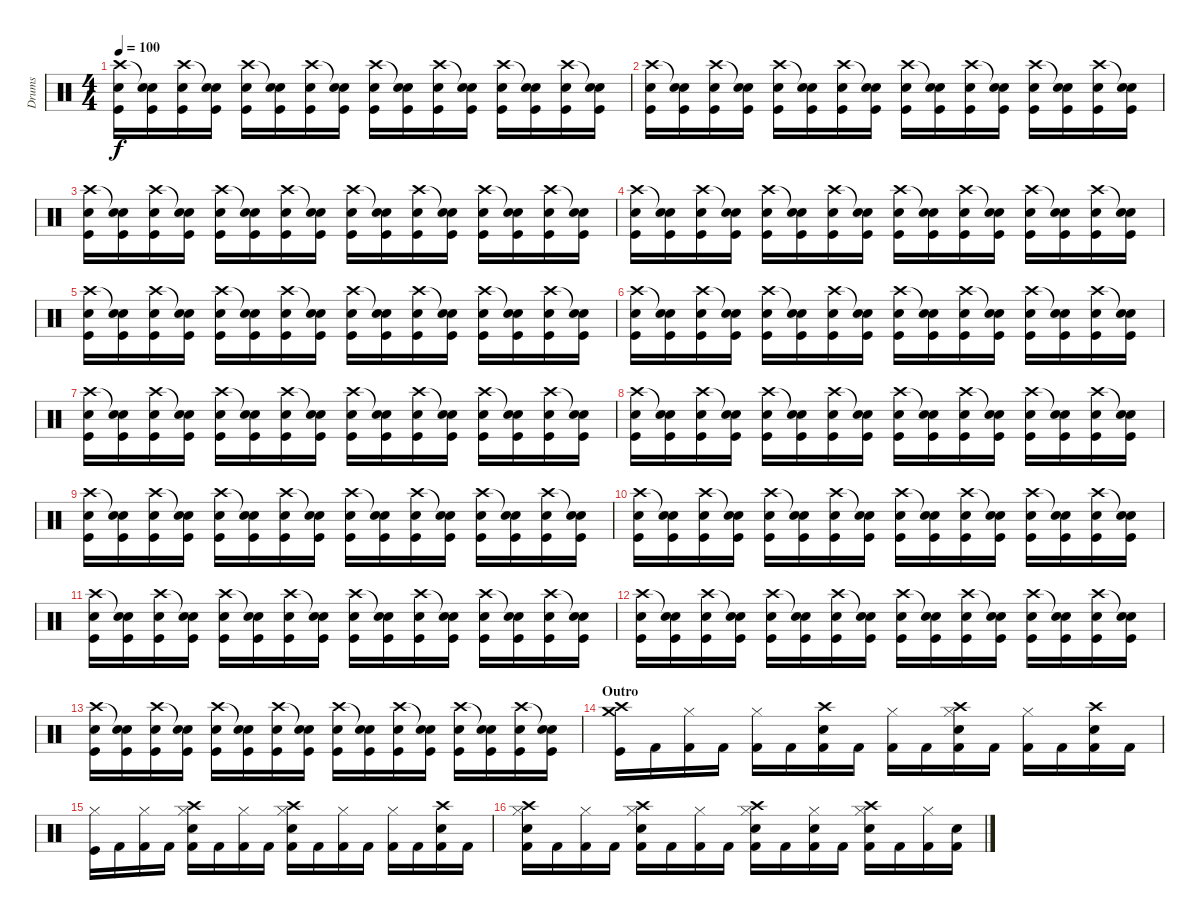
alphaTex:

\track ("Drums" "Drums") {instrument percussion}
\staff {score}
\articulation defaults
\ts (4 4)
\tempo 100
\clef neutral
\ks c
("Crash high (hit)" "Electric Snare (hit)" "Kick (hit)").16{dy f} ("Snare (hit)"{t} "Electric Snare (hit)" "Kick (hit)").16 ("Crash high (hit)" "Electric Snare (hit)" "Kick (hit)").16 ("Snare (hit)"{t} "Electric Snare (hit)" "Kick (hit)").16 ("Crash high (hit)" "Electric Snare (hit)" "Kick (hit)").16 ("Snare (hit)"{t} "Electric Snare (hit)" "Kick (hit)").16 ("Crash high (hit)" "Electric Snare (hit)" "Kick (hit)").16 ("Snare (hit)"{t} "Electric Snare (hit)" "Kick (hit)").16 ("Crash high (hit)" "Electric Snare (hit)" "Kick (hit)").16 ("Snare (hit)"{t} "Electric Snare (hit)" "Kick (hit)").16 ("Crash high (hit)" "Electric Snare (hit)" "Kick (hit)").16 ("Snare (hit)"{t} "Electric Snare (hit)" "Kick (hit)").16 ("Crash high (hit)" "Electric Snare (hit)" "Kick (hit)").16 ("Snare (hit)"{t} "Electric Snare (hit)" "Kick (hit)").16 ("Crash high (hit)" "Electric Snare (hit)" "Kick (hit)").16 ("Snare (hit)"{t} "Electric Snare (hit)" "Kick (hit)").16 |
("Crash high (hit)" "Electric Snare (hit)" "Kick (hit)").16 ("Snare (hit)"{t} "Electric Snare (hit)" "Kick (hit)").16 ("Crash high (hit)" "Electric Snare (hit)" "Kick (hit)").16 ("Snare (hit)"{t} "Electric Snare (hit)" "Kick (hit)").16 ("Crash high (hit)" "Electric Snare (hit)" "Kick (hit)").16 ("Snare (hit)"{t} "Electric Snare (hit)" "Kick (hit)").16 ("Crash high (hit)" "Electric Snare (hit)" "Kick (hit)").16 ("Snare (hit)"{t} "Electric Snare (hit)" "Kick (hit)").16 ("Crash high (hit)" "Electric Snare (hit)" "Kick (hit)").16 ("Snare (hit)"{t} "Electric Snare (hit)" "Kick (hit)").16 ("Crash high (hit)" "Electric Snare (hit)" "Kick (hit)").16 ("Snare (hit)"{t} "Electric Snare (hit)" "Kick (hit)").16 ("Crash high (hit)" "Electric Snare (hit)" "Kick (hit)").16 ("Snare (hit)"{t} "Electric Snare (hit)" "Kick (hit)").16 ("Crash high (hit)" "Electric Snare (hit)" "Kick (hit)").16 ("Snare (hit)"{t} "Electric Snare (hit)" "Kick (hit)").16 |
("Crash high (hit)" "Electric Snare (hit)" "Kick (hit)").16 ("Snare (hit)"{t} "Electric Snare (hit)" "Kick (hit)").16 ("Crash high (hit)" "Electric Snare (hit)" "Kick (hit)").16 ("Snare (hit)"{t} "Electric Snare (hit)" "Kick (hit)").16 ("Crash high (hit)" "Electric Snare (hit)" "Kick (hit)").16 ("Snare (hit)"{t} "Electric Snare (hit)" "Kick (hit)").16 ("Crash high (hit)" "Electric Snare (hit)" "Kick (hit)").16 ("Snare (hit)"{t} "Electric Snare (hit)" "Kick (hit)").16 ("Crash high (hit)" "Electric Snare (hit)" "Kick (hit)").16 ("Snare (hit)"{t} "Electric Snare (hit)" "Kick (hit)").16 ("Crash high (hit)" "Electric Snare (hit)" "Kick (hit)").16 ("Snare (hit)"{t} "Electric Snare (hit)" "Kick (hit)").16 ("Crash high (hit)" "Electric Snare (hit)" "Kick (hit)").16 ("Snare (hit)"{t} "Electric Snare (hit)" "Kick (hit)").16 ("Crash high (hit)" "Electric Snare (hit)" "Kick (hit)").16 ("Snare (hit)"{t} "Electric Snare (hit)" "Kick (hit)").16 |
("Crash high (hit)" "Electric Snare (hit)" "Kick (hit)").16 ("Snare (hit)"{t} "Electric Snare (hit)" "Kick (hit)").16 ("Crash high (hit)" "Electric Snare (hit)" "Kick (hit)").16 ("Snare (hit)"{t} "Electric Snare (hit)" "Kick (hit)").16 ("Crash high (hit)" "Electric Snare (hit)" "Kick (hit)").16 ("Snare (hit)"{t} "Electric Snare (hit)" "Kick (hit)").16 ("Crash high (hit)" "Electric Snare (hit)" "Kick (hit)").16 ("Snare (hit)"{t} "Electric Snare (hit)" "Kick (hit)").16 ("Crash high (hit)" "Electric Snare (hit)" "Kick (hit)").16 ("Snare (hit)"{t} "Electric Snare (hit)" "Kick (hit)").16 ("Crash high (hit)" "Electric Snare (hit)" "Kick (hit)").16 ("Snare (hit)"{t} "Electric Snare (hit)" "Kick (hit)").16 ("Crash high (hit)" "Electric Snare (hit)" "Kick (hit)").16 ("Snare (hit)"{t} "Electric Snare (hit)" "Kick (hit)").16 ("Crash high (hit)" "Electric Snare (hit)" "Kick (hit)").16 ("Snare (hit)"{t} "Electric Snare (hit)" "Kick (hit)").16 |
("Crash high (hit)" "Electric Snare (hit)" "Kick (hit)").16 ("Snare (hit)"{t} "Electric Snare (hit)" "Kick (hit)").16 ("Crash high (hit)" "Electric Snare (hit)" "Kick (hit)").16 ("Snare (hit)"{t} "Electric Snare (hit)" "Kick (hit)").16 ("Crash high (hit)" "Electric Snare (hit)" "Kick (hit)").16 ("Snare (hit)"{t} "Electric Snare (hit)" "Kick (hit)").16 ("Crash high (hit)" "Electric Snare (hit)" "Kick (hit)").16 ("Snare (hit)"{t} "Electric Snare (hit)" "Kick (hit)").16 ("Crash high (hit)" "Electric Snare (hit)" "Kick (hit)").16 ("Snare (hit)"{t} "Electric Snare (hit)" "Kick (hit)").16 ("Crash high (hit)" "Electric Snare (hit)" "Kick (hit)").16 ("Snare (hit)"{t} "Electric Snare (hit)" "Kick (hit)").16 ("Crash high (hit)" "Electric Snare (hit)" "Kick (hit)").16 ("Snare (hit)"{t} "Electric Snare (hit)" "Kick (hit)").16 ("Crash high (hit)" "Electric Snare (hit)" "Kick (hit)").16 ("Snare (hit)"{t} "Electric Snare (hit)" "Kick (hit)").16 |
("Crash high (hit)" "Electric Snare (hit)" "Kick (hit)").16 ("Snare (hit)"{t} "Electric Snare (hit)" "Kick (hit)").16 ("Crash high (hit)" "Electric Snare (hit)" "Kick (hit)").16 ("Snare (hit)"{t} "Electric Snare (hit)" "Kick (hit)").16 ("Crash high (hit)" "Electric Snare (hit)" "Kick (hit)").16 ("Snare (hit)"{t} "Electric Snare (hit)" "Kick (hit)").16 ("Crash high (hit)" "Electric Snare (hit)" "Kick (hit)").16 ("Snare (hit)"{t} "Electric Snare (hit)" "Kick (hit)").16 ("Crash high (hit)" "Electric Snare (hit)" "Kick (hit)").16 ("Snare (hit)"{t} "Electric Snare (hit)" "Kick (hit)").16 ("Crash high (hit)" "Electric Snare (hit)" "Kick (hit)").16 ("Snare (hit)"{t} "Electric Snare (hit)" "Kick (hit)").16 ("Crash high (hit)" "Electric Snare (hit)" "Kick (hit)").16 ("Snare (hit)"{t} "Electric Snare (hit)" "Kick (hit)").16 ("Crash high (hit)" "Electric Snare (hit)" "Kick (hit)").16 ("Snare (hit)"{t} "Electric Snare (hit)" "Kick (hit)").16 |
("Crash high (hit)" "Electric Snare (hit)" "Kick (hit)").16 ("Snare (hit)"{t} "Electric Snare (hit)" "Kick (hit)").16 ("Crash high (hit)" "Electric Snare (hit)" "Kick (hit)").16 ("Snare (hit)"{t} "Electric Snare (hit)" "Kick (hit)").16 ("Crash high (hit)" "Electric Snare (hit)" "Kick (hit)").16 ("Snare (hit)"{t} "Electric Snare (hit)" "Kick (hit)").16 ("Crash high (hit)" "Electric Snare (hit)" "Kick (hit)").16 ("Snare (hit)"{t} "Electric Snare (hit)" "Kick (hit)").16 ("Crash high (hit)" "Electric Snare (hit)" "Kick (hit)").16 ("Snare (hit)"{t} "Electric Snare (hit)" "Kick (hit)").16 ("Crash high (hit)" "Electric Snare (hit)" "Kick (hit)").16 ("Snare (hit)"{t} "Electric Snare (hit)" "Kick (hit)").16 ("Crash high (hit)" "Electric Snare (hit)" "Kick (hit)").16 ("Snare (hit)"{t} "Electric Snare (hit)" "Kick (hit)").16 ("Crash high (hit)" "Electric Snare (hit)" "Kick (hit)").16 ("Snare (hit)"{t} "Electric Snare (hit)" "Kick (hit)").16 |
("Crash high (hit)" "Electric Snare (hit)" "Kick (hit)").16 ("Snare (hit)"{t} "Electric Snare (hit)" "Kick (hit)").16 ("Crash high (hit)" "Electric Snare (hit)" "Kick (hit)").16 ("Snare (hit)"{t} "Electric Snare (hit)" "Kick (hit)").16 ("Crash high (hit)" "Electric Snare (hit)" "Kick (hit)").16 ("Snare (hit)"{t} "Electric Snare (hit)" "Kick (hit)").16 ("Crash high (hit)" "Electric Snare (hit)" "Kick (hit)").16 ("Snare (hit)"{t} "Electric Snare (hit)" "Kick (hit)").16 ("Crash high (hit)" "Electric Snare (hit)" "Kick (hit)").16 ("Snare (hit)"{t} "Electric Snare (hit)" "Kick (hit)").16 ("Crash high (hit)" "Electric Snare (hit)" "Kick (hit)").16 ("Snare (hit)"{t} "Electric Snare (hit)" "Kick (hit)").16 ("Crash high (hit)" "Electric Snare (hit)" "Kick (hit)").16 ("Snare (hit)"{t} "Electric Snare (hit)" "Kick (hit)").16 ("Crash high (hit)" "Electric Snare (hit)" "Kick (hit)").16 ("Snare (hit)"{t} "Electric Snare (hit)" "Kick (hit)").16 |
("Crash high (hit)" "Electric Snare (hit)" "Kick (hit)").16 ("Snare (hit)"{t} "Electric Snare (hit)" "Kick (hit)").16 ("Crash high (hit)" "Electric Snare (hit)" "Kick (hit)").16 ("Snare (hit)"{t} "Electric Snare (hit)" "Kick (hit)").16 ("Crash high (hit)" "Electric Snare (hit)" "Kick (hit)").16 ("Snare (hit)"{t} "Electric Snare (hit)" "Kick (hit)").16 ("Crash high (hit)" "Electric Snare (hit)" "Kick (hit)").16 ("Snare (hit)"{t} "Electric Snare (hit)" "Kick (hit)").16 ("Crash high (hit)" "Electric Snare (hit)" "Kick (hit)").16 ("Snare (hit)"{t} "Electric Snare (hit)" "Kick (hit)").16 ("Crash high (hit)" "Electric Snare (hit)" "Kick (hit)").16 ("Snare (hit)"{t} "Electric Snare (hit)" "Kick (hit)").16 ("Crash high (hit)" "Electric Snare (hit)" "Kick (hit)").16 ("Snare (hit)"{t} "Electric Snare (hit)" "Kick (hit)").16 ("Crash high (hit)" "Electric Snare (hit)" "Kick (hit)").16 ("Snare (hit)"{t} "Electric Snare (hit)" "Kick (hit)").16 |
("Crash high (hit)" "Electric Snare (hit)" "Kick (hit)").16 ("Snare (hit)"{t} "Electric Snare (hit)" "Kick (hit)").16 ("Crash high (hit)" "Electric Snare (hit)" "Kick (hit)").16 ("Snare (hit)"{t} "Electric Snare (hit)" "Kick (hit)").16 ("Crash high (hit)" "Electric Snare (hit)" "Kick (hit)").16 ("Snare (hit)"{t} "Electric Snare (hit)" "Kick (hit)").16 ("Crash high (hit)" "Electric Snare (hit)" "Kick (hit)").16 ("Snare (hit)"{t} "Electric Snare (hit)" "Kick (hit)").16 ("Crash high (hit)" "Electric Snare (hit)" "Kick (hit)").16 ("Snare (hit)"{t} "Electric Snare (hit)" "Kick (hit)").16 ("Crash high (hit)" "Electric Snare (hit)" "Kick (hit)").16 ("Snare (hit)"{t} "Electric Snare (hit)" "Kick (hit)").16 ("Crash high (hit)" "Electric Snare (hit)" "Kick (hit)").16 ("Snare (hit)"{t} "Electric Snare (hit)" "Kick (hit)").16 ("Crash high (hit)" "Electric Snare (hit)" "Kick (hit)").16 ("Snare (hit)"{t} "Electric Snare (hit)" "Kick (hit)").16 |
("Crash high (hit)" "Electric Snare (hit)" "Kick (hit)").16 ("Snare (hit)"{t} "Electric Snare (hit)" "Kick (hit)").16 ("Crash high (hit)" "Electric Snare (hit)" "Kick (hit)").16 ("Snare (hit)"{t} "Electric Snare (hit)" "Kick (hit)").16 ("Crash high (hit)" "Electric Snare (hit)" "Kick (hit)").16 ("Snare (hit)"{t} "Electric Snare (hit)" "Kick (hit)").16 ("Crash high (hit)" "Electric Snare (hit)" "Kick (hit)").16 ("Snare (hit)"{t} "Electric Snare (hit)" "Kick (hit)").16 ("Crash high (hit)" "Electric Snare (hit)" "Kick (hit)").16 ("Snare (hit)"{t} "Electric Snare (hit)" "Kick (hit)").16 ("Crash high (hit)" "Electric Snare (hit)" "Kick (hit)").16 ("Snare (hit)"{t} "Electric Snare (hit)" "Kick (hit)").16 ("Crash high (hit)" "Electric Snare (hit)" "Kick (hit)").16 ("Snare (hit)"{t} "Electric Snare (hit)" "Kick (hit)").16 ("Crash high (hit)" "Electric Snare (hit)" "Kick (hit)").16 ("Snare (hit)"{t} "Electric Snare (hit)" "Kick (hit)").16 |
("Crash high (hit)" "Electric Snare (hit)" "Kick (hit)").16 ("Snare (hit)"{t} "Electric Snare (hit)" "Kick (hit)").16 ("Crash high (hit)" "Electric Snare (hit)" "Kick (hit)").16 ("Snare (hit)"{t} "Electric Snare (hit)" "Kick (hit)").16 ("Crash high (hit)" "Electric Snare (hit)" "Kick (hit)").16 ("Snare (hit)"{t} "Electric Snare (hit)" "Kick (hit)").16 ("Crash high (hit)" "Electric Snare (hit)" "Kick (hit)").16 ("Snare (hit)"{t} "Electric Snare (hit)" "Kick (hit)").16 ("Crash high (hit)" "Electric Snare (hit)" "Kick (hit)").16 ("Snare (hit)"{t} "Electric Snare (hit)" "Kick (hit)").16 ("Crash high (hit)" "Electric Snare (hit)" "Kick (hit)").16 ("Snare (hit)"{t} "Electric Snare (hit)" "Kick (hit)").16 ("Crash high (hit)" "Electric Snare (hit)" "Kick (hit)").16 ("Snare (hit)"{t} "Electric Snare (hit)" "Kick (hit)").16 ("Crash high (hit)" "Electric Snare (hit)" "Kick (hit)").16 ("Snare (hit)"{t} "Electric Snare (hit)" "Kick (hit)").16 |
("Crash high (hit)" "Electric Snare (hit)" "Kick (hit)").16 ("Snare (hit)"{t} "Electric Snare (hit)" "Kick (hit)").16 ("Crash high (hit)" "Electric Snare (hit)" "Kick (hit)").16 ("Snare (hit)"{t} "Electric Snare (hit)" "Kick (hit)").16 ("Crash high (hit)" "Electric Snare (hit)" "Kick (hit)").16 ("Snare (hit)"{t} "Electric Snare (hit)" "Kick (hit)").16 ("Crash high (hit)" "Electric Snare (hit)" "Kick (hit)").16 ("Snare (hit)"{t} "Electric Snare (hit)" "Kick (hit)").16 ("Crash high (hit)" "Electric Snare (hit)" "Kick (hit)").16 ("Snare (hit)"{t} "Electric Snare (hit)" "Kick (hit)").16 ("Crash high (hit)" "Electric Snare (hit)" "Kick (hit)").16 ("Snare (hit)"{t} "Electric Snare (hit)" "Kick (hit)").16 ("Crash high (hit)" "Electric Snare (hit)" "Kick (hit)").16 ("Snare (hit)"{t} "Electric Snare (hit)" "Kick (hit)").16 ("Crash high (hit)" "Electric Snare (hit)" "Kick (hit)").16 ("Snare (hit)"{t} "Electric Snare (hit)" "Kick (hit)").16 |
\section ("" "Outro")
("Crash medium (hit)" "Crash high (hit)" "Kick (hit)").16 "Kick (hit) 2".16 ("Hi-Hat (closed)" "Kick (hit) 2").16 "Kick (hit) 2".16 ("Hi-Hat (closed)" "Kick (hit) 2").16 "Kick (hit) 2".16 ("Crash high (hit)" "Electric Snare (hit)" "Kick (hit) 2").16 "Kick (hit) 2".16 ("Hi-Hat (closed)" "Kick (hit) 2").16 "Kick (hit) 2".16 ("Hi-Hat (closed)" "Crash high (hit)" "Electric Snare (hit)" "Kick (hit) 2").16 "Kick (hit) 2".16 ("Hi-Hat (closed)" "Kick (hit) 2").16 "Kick (hit) 2".16 ("Crash high (hit)" "Electric Snare (hit)" "Kick (hit) 2").16 "Kick (hit) 2".16 |
("Hi-Hat (closed)" "Kick (hit)").16 "Kick (hit) 2".16 ("Hi-Hat (closed)" "Kick (hit) 2").16 "Kick (hit) 2".16 ("Hi-Hat (closed)" "Crash high (hit)" "Electric Snare (hit)" "Kick (hit) 2").16 "Kick (hit) 2".16 ("Hi-Hat (closed)" "Kick (hit) 2").16 "Kick (hit) 2".16 ("Hi-Hat (closed)" "Crash high (hit)" "Electric Snare (hit)" "Kick (hit) 2").16 "Kick (hit) 2".16 ("Hi-Hat (closed)" "Kick (hit) 2").16 "Kick (hit) 2".16 ("Hi-Hat (closed)" "Kick (hit) 2").16 "Kick (hit) 2".16 ("Crash high (hit)" "Electric Snare (hit)" "Kick (hit) 2").16 "Kick (hit) 2".16 |
("Hi-Hat (closed)" "Crash high (hit)" "Electric Snare (hit)" "Kick (hit) 2").16 "Kick (hit) 2".16 ("Hi-Hat (closed)" "Kick (hit) 2").16 "Kick (hit) 2".16 ("Hi-Hat (closed)" "Crash high (hit)" "Electric Snare (hit)" "Kick (hit) 2").16 "Kick (hit) 2".16 ("Hi-Hat (closed)" "Kick (hit) 2").16 "Kick (hit) 2".16 ("Hi-Hat (closed)" "Crash high (hit)" "Electric Snare (hit)" "Kick (hit) 2").16 "Kick (hit) 2".16 ("Hi-Hat (closed)" "Electric Snare (hit)" "Kick (hit) 2").16 "Kick (hit) 2".16 ("Hi-Hat (closed)" "Crash high (hit)" "Electric Snare (hit)" "Kick (hit) 2").16 "Kick (hit) 2".16 ("Hi-Hat (closed)" "Kick (hit) 2").16 ("Electric Snare (hit)" "Kick (hit) 2").16
